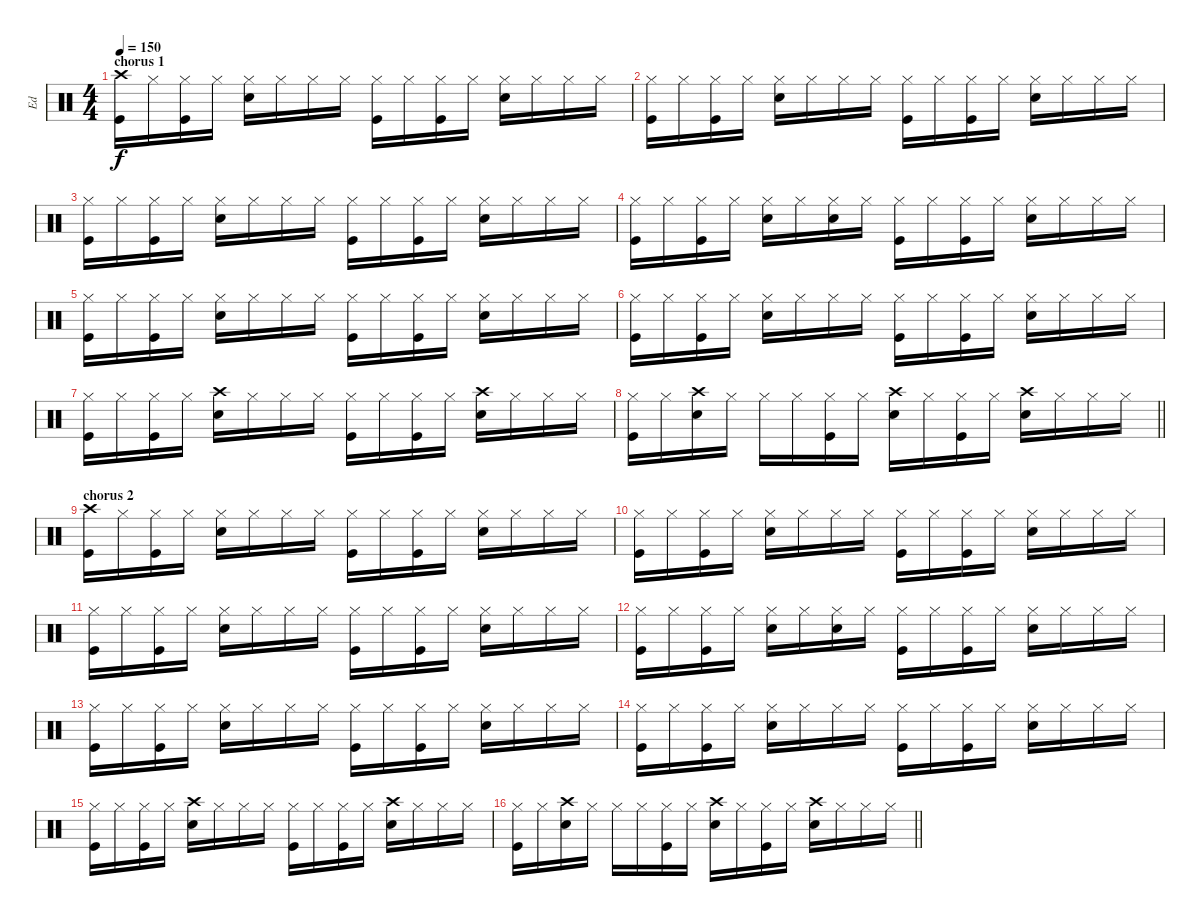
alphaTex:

\track ("Ed" "Ed") {instrument percussion}
\staff {score}
\articulation defaults
\ts (4 4)
\section ("" "chorus 1")
\tempo 150
\clef neutral
\ks c
("Crash high (hit)" "Kick (hit)").16{dy f} "Hi-Hat (closed)".16 ("Hi-Hat (closed)" "Kick (hit)").16 "Hi-Hat (closed)".16 ("Hi-Hat (closed)" "Electric Snare (hit)").16 "Hi-Hat (closed)".16 "Hi-Hat (closed)".16 "Hi-Hat (closed)".16 ("Hi-Hat (closed)" "Kick (hit)").16 "Hi-Hat (closed)".16 ("Hi-Hat (closed)" "Kick (hit)").16 "Hi-Hat (closed)".16 ("Hi-Hat (closed)" "Electric Snare (hit)").16 "Hi-Hat (closed)".16 "Hi-Hat (closed)".16 "Hi-Hat (closed)".16 |
("Hi-Hat (closed)" "Kick (hit)").16 "Hi-Hat (closed)".16 ("Hi-Hat (closed)" "Kick (hit)").16 "Hi-Hat (closed)".16 ("Hi-Hat (closed)" "Electric Snare (hit)").16 "Hi-Hat (closed)".16 "Hi-Hat (closed)".16 "Hi-Hat (closed)".16 ("Hi-Hat (closed)" "Kick (hit)").16 "Hi-Hat (closed)".16 ("Hi-Hat (closed)" "Kick (hit)").16 "Hi-Hat (closed)".16 ("Hi-Hat (closed)" "Electric Snare (hit)").16 "Hi-Hat (closed)".16 "Hi-Hat (closed)".16 "Hi-Hat (closed)".16 |
("Hi-Hat (closed)" "Kick (hit)").16 "Hi-Hat (closed)".16 ("Hi-Hat (closed)" "Kick (hit)").16 "Hi-Hat (closed)".16 ("Hi-Hat (closed)" "Electric Snare (hit)").16 "Hi-Hat (closed)".16 "Hi-Hat (closed)".16 "Hi-Hat (closed)".16 ("Hi-Hat (closed)" "Kick (hit)").16 "Hi-Hat (closed)".16 ("Hi-Hat (closed)" "Kick (hit)").16 "Hi-Hat (closed)".16 ("Hi-Hat (closed)" "Electric Snare (hit)").16 "Hi-Hat (closed)".16 "Hi-Hat (closed)".16 "Hi-Hat (closed)".16 |
("Hi-Hat (closed)" "Kick (hit)").16 "Hi-Hat (closed)".16 ("Hi-Hat (closed)" "Kick (hit)").16 "Hi-Hat (closed)".16 ("Hi-Hat (closed)" "Electric Snare (hit)").16 "Hi-Hat (closed)".16 ("Hi-Hat (closed)" "Electric Snare (hit)").16 "Hi-Hat (closed)".16 ("Hi-Hat (closed)" "Kick (hit)").16 "Hi-Hat (closed)".16 ("Hi-Hat (closed)" "Kick (hit)").16 "Hi-Hat (closed)".16 ("Hi-Hat (closed)" "Electric Snare (hit)").16 "Hi-Hat (closed)".16 "Hi-Hat (closed)".16 "Hi-Hat (closed)".16 |
("Hi-Hat (closed)" "Kick (hit)").16 "Hi-Hat (closed)".16 ("Hi-Hat (closed)" "Kick (hit)").16 "Hi-Hat (closed)".16 ("Hi-Hat (closed)" "Electric Snare (hit)").16 "Hi-Hat (closed)".16 "Hi-Hat (closed)".16 "Hi-Hat (closed)".16 ("Hi-Hat (closed)" "Kick (hit)").16 "Hi-Hat (closed)".16 ("Hi-Hat (closed)" "Kick (hit)").16 "Hi-Hat (closed)".16 ("Hi-Hat (closed)" "Electric Snare (hit)").16 "Hi-Hat (closed)".16 "Hi-Hat (closed)".16 "Hi-Hat (closed)".16 |
("Hi-Hat (closed)" "Kick (hit)").16 "Hi-Hat (closed)".16 ("Hi-Hat (closed)" "Kick (hit)").16 "Hi-Hat (closed)".16 ("Hi-Hat (closed)" "Electric Snare (hit)").16 "Hi-Hat (closed)".16 "Hi-Hat (closed)".16 "Hi-Hat (closed)".16 ("Hi-Hat (closed)" "Kick (hit)").16 "Hi-Hat (closed)".16 ("Hi-Hat (closed)" "Kick (hit)").16 "Hi-Hat (closed)".16 ("Hi-Hat (closed)" "Electric Snare (hit)").16 "Hi-Hat (closed)".16 "Hi-Hat (closed)".16 "Hi-Hat (closed)".16 |
("Hi-Hat (closed)" "Kick (hit)").16 "Hi-Hat (closed)".16 ("Hi-Hat (closed)" "Kick (hit)").16 "Hi-Hat (closed)".16 ("Crash high (hit)" "Electric Snare (hit)").16 "Hi-Hat (closed)".16 "Hi-Hat (closed)".16 "Hi-Hat (closed)".16 ("Hi-Hat (closed)" "Kick (hit)").16 "Hi-Hat (closed)".16 ("Hi-Hat (closed)" "Kick (hit)").16 "Hi-Hat (closed)".16 ("Crash high (hit)" "Electric Snare (hit)").16 "Hi-Hat (closed)".16 "Hi-Hat (closed)".16 "Hi-Hat (closed)".16 |
\barLineRight lightlight
("Hi-Hat (closed)" "Kick (hit)").16 "Hi-Hat (closed)".16 ("Crash high (hit)" "Electric Snare (hit)").16 "Hi-Hat (closed)".16 "Hi-Hat (closed)".16 "Hi-Hat (closed)".16 ("Hi-Hat (closed)" "Kick (hit)").16 "Hi-Hat (closed)".16 ("Crash high (hit)" "Electric Snare (hit)").16 "Hi-Hat (closed)".16 ("Hi-Hat (closed)" "Kick (hit)").16 "Hi-Hat (closed)".16 ("Crash high (hit)" "Electric Snare (hit)").16 "Hi-Hat (closed)".16 "Hi-Hat (closed)".16 "Hi-Hat (closed)".16 |
\section ("" "chorus 2")
("Crash high (hit)" "Kick (hit)").16 "Hi-Hat (closed)".16 ("Hi-Hat (closed)" "Kick (hit)").16 "Hi-Hat (closed)".16 ("Hi-Hat (closed)" "Electric Snare (hit)").16 "Hi-Hat (closed)".16 "Hi-Hat (closed)".16 "Hi-Hat (closed)".16 ("Hi-Hat (closed)" "Kick (hit)").16 "Hi-Hat (closed)".16 ("Hi-Hat (closed)" "Kick (hit)").16 "Hi-Hat (closed)".16 ("Hi-Hat (closed)" "Electric Snare (hit)").16 "Hi-Hat (closed)".16 "Hi-Hat (closed)".16 "Hi-Hat (closed)".16 |
("Hi-Hat (closed)" "Kick (hit)").16 "Hi-Hat (closed)".16 ("Hi-Hat (closed)" "Kick (hit)").16 "Hi-Hat (closed)".16 ("Hi-Hat (closed)" "Electric Snare (hit)").16 "Hi-Hat (closed)".16 "Hi-Hat (closed)".16 "Hi-Hat (closed)".16 ("Hi-Hat (closed)" "Kick (hit)").16 "Hi-Hat (closed)".16 ("Hi-Hat (closed)" "Kick (hit)").16 "Hi-Hat (closed)".16 ("Hi-Hat (closed)" "Electric Snare (hit)").16 "Hi-Hat (closed)".16 "Hi-Hat (closed)".16 "Hi-Hat (closed)".16 |
("Hi-Hat (closed)" "Kick (hit)").16 "Hi-Hat (closed)".16 ("Hi-Hat (closed)" "Kick (hit)").16 "Hi-Hat (closed)".16 ("Hi-Hat (closed)" "Electric Snare (hit)").16 "Hi-Hat (closed)".16 "Hi-Hat (closed)".16 "Hi-Hat (closed)".16 ("Hi-Hat (closed)" "Kick (hit)").16 "Hi-Hat (closed)".16 ("Hi-Hat (closed)" "Kick (hit)").16 "Hi-Hat (closed)".16 ("Hi-Hat (closed)" "Electric Snare (hit)").16 "Hi-Hat (closed)".16 "Hi-Hat (closed)".16 "Hi-Hat (closed)".16 |
("Hi-Hat (closed)" "Kick (hit)").16 "Hi-Hat (closed)".16 ("Hi-Hat (closed)" "Kick (hit)").16 "Hi-Hat (closed)".16 ("Hi-Hat (closed)" "Electric Snare (hit)").16 "Hi-Hat (closed)".16 ("Hi-Hat (closed)" "Electric Snare (hit)").16 "Hi-Hat (closed)".16 ("Hi-Hat (closed)" "Kick (hit)").16 "Hi-Hat (closed)".16 ("Hi-Hat (closed)" "Kick (hit)").16 "Hi-Hat (closed)".16 ("Hi-Hat (closed)" "Electric Snare (hit)").16 "Hi-Hat (closed)".16 "Hi-Hat (closed)".16 "Hi-Hat (closed)".16 |
("Hi-Hat (closed)" "Kick (hit)").16 "Hi-Hat (closed)".16 ("Hi-Hat (closed)" "Kick (hit)").16 "Hi-Hat (closed)".16 ("Hi-Hat (closed)" "Electric Snare (hit)").16 "Hi-Hat (closed)".16 "Hi-Hat (closed)".16 "Hi-Hat (closed)".16 ("Hi-Hat (closed)" "Kick (hit)").16 "Hi-Hat (closed)".16 ("Hi-Hat (closed)" "Kick (hit)").16 "Hi-Hat (closed)".16 ("Hi-Hat (closed)" "Electric Snare (hit)").16 "Hi-Hat (closed)".16 "Hi-Hat (closed)".16 "Hi-Hat (closed)".16 |
("Hi-Hat (closed)" "Kick (hit)").16 "Hi-Hat (closed)".16 ("Hi-Hat (closed)" "Kick (hit)").16 "Hi-Hat (closed)".16 ("Hi-Hat (closed)" "Electric Snare (hit)").16 "Hi-Hat (closed)".16 "Hi-Hat (closed)".16 "Hi-Hat (closed)".16 ("Hi-Hat (closed)" "Kick (hit)").16 "Hi-Hat (closed)".16 ("Hi-Hat (closed)" "Kick (hit)").16 "Hi-Hat (closed)".16 ("Hi-Hat (closed)" "Electric Snare (hit)").16 "Hi-Hat (closed)".16 "Hi-Hat (closed)".16 "Hi-Hat (closed)".16 |
("Hi-Hat (closed)" "Kick (hit)").16 "Hi-Hat (closed)".16 ("Hi-Hat (closed)" "Kick (hit)").16 "Hi-Hat (closed)".16 ("Crash high (hit)" "Electric Snare (hit)").16 "Hi-Hat (closed)".16 "Hi-Hat (closed)".16 "Hi-Hat (closed)".16 ("Hi-Hat (closed)" "Kick (hit)").16 "Hi-Hat (closed)".16 ("Hi-Hat (closed)" "Kick (hit)").16 "Hi-Hat (closed)".16 ("Crash high (hit)" "Electric Snare (hit)").16 "Hi-Hat (closed)".16 "Hi-Hat (closed)".16 "Hi-Hat (closed)".16 |
\barLineRight lightlight
("Hi-Hat (closed)" "Kick (hit)").16 "Hi-Hat (closed)".16 ("Crash high (hit)" "Electric Snare (hit)").16 "Hi-Hat (closed)".16 "Hi-Hat (closed)".16 "Hi-Hat (closed)".16 ("Hi-Hat (closed)" "Kick (hit)").16 "Hi-Hat (closed)".16 ("Crash high (hit)" "Electric Snare (hit)").16 "Hi-Hat (closed)".16 ("Hi-Hat (closed)" "Kick (hit)").16 "Hi-Hat (closed)".16 ("Crash high (hit)" "Electric Snare (hit)").16 "Hi-Hat (closed)".16 "Hi-Hat (closed)".16 "Hi-Hat (closed)".16
